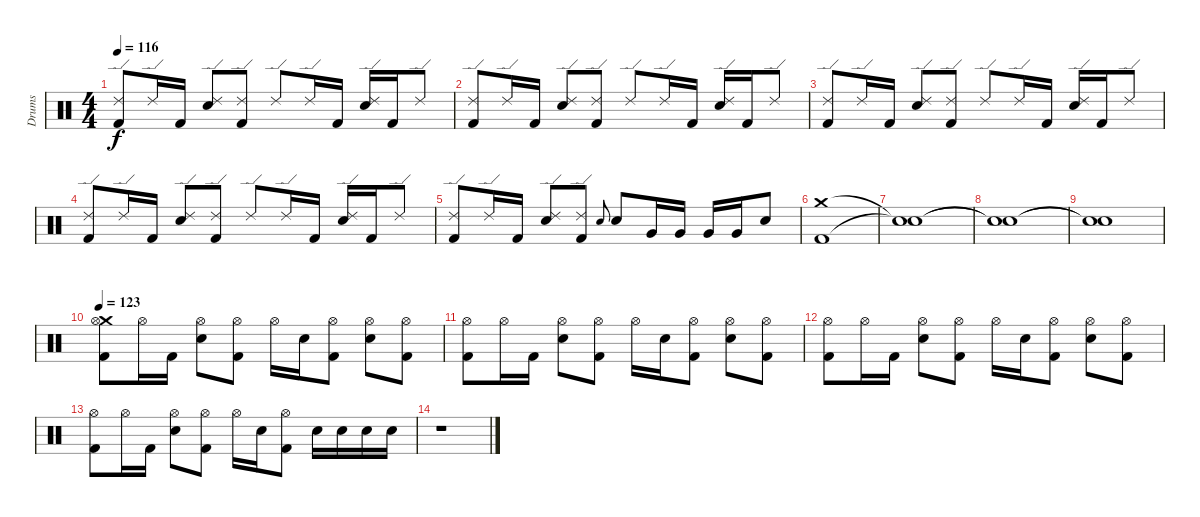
\track ("Drums" "Drums") {instrument percussion}
\staff {score}
\articulation defaults
\ts (4 4)
\tempo 116
\clef neutral
\ks c
("Ride (edge) 2" "Kick (hit) 2").8{dy f} "Ride (edge) 2".16 "Kick (hit) 2".16 ("Ride (edge) 2" "Electric Snare (hit)").8 ("Ride (edge) 2" "Kick (hit) 2").8 "Ride (edge) 2".8 "Ride (edge) 2".16 "Kick (hit) 2".16 ("Ride (edge) 2" "Electric Snare (hit)").16 "Kick (hit) 2".16 "Ride (edge) 2".8 |
("Ride (edge) 2" "Kick (hit) 2").8 "Ride (edge) 2".16 "Kick (hit) 2".16 ("Ride (edge) 2" "Electric Snare (hit)").8 ("Ride (edge) 2" "Kick (hit) 2").8 "Ride (edge) 2".8 "Ride (edge) 2".16 "Kick (hit) 2".16 ("Ride (edge) 2" "Electric Snare (hit)").16 "Kick (hit) 2".16 "Ride (edge) 2".8 |
("Ride (edge) 2" "Kick (hit) 2").8 "Ride (edge) 2".16 "Kick (hit) 2".16 ("Ride (edge) 2" "Electric Snare (hit)").8 ("Ride (edge) 2" "Kick (hit) 2").8 "Ride (edge) 2".8 "Ride (edge) 2".16 "Kick (hit) 2".16 ("Ride (edge) 2" "Electric Snare (hit)").16 "Kick (hit) 2".16 "Ride (edge) 2".8 |
("Ride (edge) 2" "Kick (hit) 2").8 "Ride (edge) 2".16 "Kick (hit) 2".16 ("Ride (edge) 2" "Electric Snare (hit)").8 ("Ride (edge) 2" "Kick (hit) 2").8 "Ride (edge) 2".8 "Ride (edge) 2".16 "Kick (hit) 2".16 ("Ride (edge) 2" "Electric Snare (hit)").16 "Kick (hit) 2".16 "Ride (edge) 2".8 |
("Ride (edge) 2" "Kick (hit) 2").8 "Ride (edge) 2".16 "Kick (hit) 2".16 ("Ride (edge) 2" "Electric Snare (hit)").8 ("Ride (edge) 2" "Kick (hit) 2").8 "Electric Snare (hit)".8{gr onbeat} "Electric Snare (hit)".8 "Very Low Tom (hit)".16 "Very Low Tom (hit)".16 "Very Low Tom (hit)".16 "Very Low Tom (hit)".16 "Electric Snare (hit)".8 |
("Crash medium (hit)" "Kick (hit) 2").1 |
("Snare (hit)"{t} "Snare (hit)"{t}).1 |
("Snare (hit)"{t} "Snare (hit)"{t}).1 |
("Snare (hit)"{t} "Snare (hit)"{t}).1 |
\tempo 123
("Crash medium (hit)" "Hi-Hat (open)" "Kick (hit) 2").8 "Hi-Hat (open)".16 "Kick (hit) 2".16 ("Hi-Hat (open)" "Electric Snare (hit)").8 ("Hi-Hat (open)" "Kick (hit) 2").8 "Hi-Hat (open)".16 "Electric Snare (hit)".16 ("Hi-Hat (open)" "Kick (hit) 2").8 ("Hi-Hat (open)" "Electric Snare (hit)").8 ("Hi-Hat (open)" "Kick (hit) 2").8 |
("Hi-Hat (open)" "Kick (hit) 2").8 "Hi-Hat (open)".16 "Kick (hit) 2".16 ("Hi-Hat (open)" "Electric Snare (hit)").8 ("Hi-Hat (open)" "Kick (hit) 2").8 "Hi-Hat (open)".16 "Electric Snare (hit)".16 ("Hi-Hat (open)" "Kick (hit) 2").8 ("Hi-Hat (open)" "Electric Snare (hit)").8 ("Hi-Hat (open)" "Kick (hit) 2").8 |
("Hi-Hat (open)" "Kick (hit) 2").8 "Hi-Hat (open)".16 "Kick (hit) 2".16 ("Hi-Hat (open)" "Electric Snare (hit)").8 ("Hi-Hat (open)" "Kick (hit) 2").8 "Hi-Hat (open)".16 "Electric Snare (hit)".16 ("Hi-Hat (open)" "Kick (hit) 2").8 ("Hi-Hat (open)" "Electric Snare (hit)").8 ("Hi-Hat (open)" "Kick (hit) 2").8 |
("Hi-Hat (open)" "Kick (hit) 2").8 "Hi-Hat (open)".16 "Kick (hit) 2".16 ("Hi-Hat (open)" "Electric Snare (hit)").8 ("Hi-Hat (open)" "Kick (hit) 2").8 "Hi-Hat (open)".16 "Electric Snare (hit)".16 ("Hi-Hat (open)" "Kick (hit) 2").8 "Electric Snare (hit)".16 "Electric Snare (hit)".16 "Electric Snare (hit)".16 "Electric Snare (hit)".16 |
r.1
